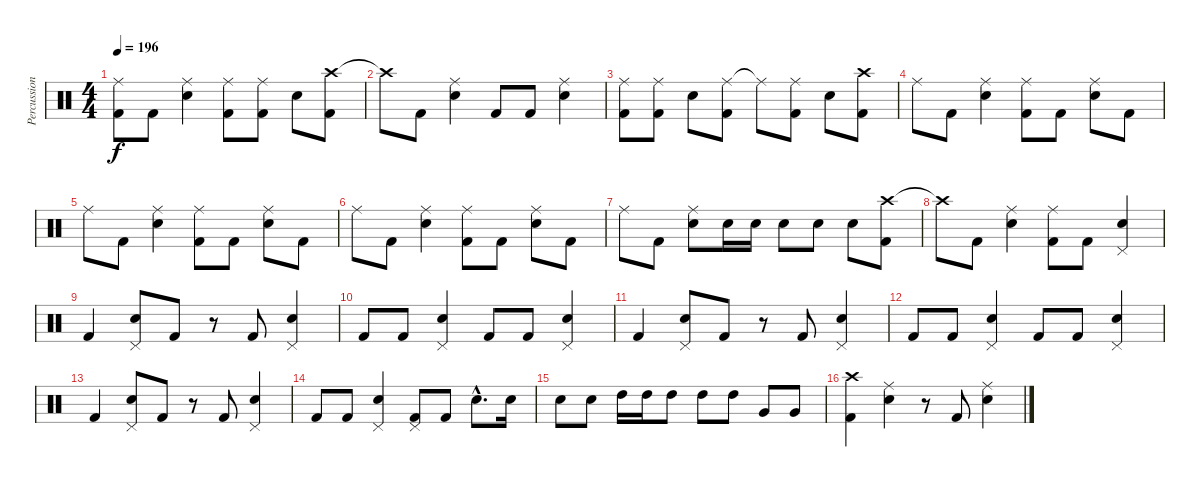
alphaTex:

\track ("Percussion" "Percussion") {instrument percussion}
\staff {score}
\articulation defaults
\ts (4 4)
\tempo 196
\clef neutral
\ks c
("Ride (middle)" "Kick (hit) 2").8{dy f} "Kick (hit) 2".8 ("Ride (middle)" "Snare (hit) 2").4 ("Ride (middle)" "Kick (hit) 2").8 ("Ride (middle)" "Kick (hit) 2").8 "Snare (hit) 2".8 ("Crash high (hit)" "Kick (hit) 2").8 |
"Crash high (hit)"{t}.8 "Kick (hit) 2".8 ("Ride (middle)" "Snare (hit) 2").4 "Kick (hit) 2".8 "Kick (hit) 2".8 ("Ride (middle)" "Snare (hit) 2").4 |
("Ride (middle)" "Kick (hit) 2").8 ("Ride (middle)" "Kick (hit) 2").8 "Snare (hit) 2".8 ("Ride (middle)" "Kick (hit) 2").8 "Ride (middle)"{t}.8 ("Ride (middle)" "Kick (hit) 2").8 "Snare (hit) 2".8 ("Crash high (hit)" "Kick (hit) 2").8 |
"Ride (middle)".8 "Kick (hit) 2".8 ("Ride (middle)" "Snare (hit) 2").4 ("Ride (middle)" "Kick (hit) 2").8 "Kick (hit) 2".8 ("Ride (middle)" "Snare (hit) 2").8 "Kick (hit) 2".8 |
"Ride (middle)".8 "Kick (hit) 2".8 ("Ride (middle)" "Snare (hit) 2").4 ("Ride (middle)" "Kick (hit) 2").8 "Kick (hit) 2".8 ("Ride (middle)" "Snare (hit) 2").8 "Kick (hit) 2".8 |
"Ride (middle)".8 "Kick (hit) 2".8 ("Ride (middle)" "Snare (hit) 2").4 ("Ride (middle)" "Kick (hit) 2").8 "Kick (hit) 2".8 ("Ride (middle)" "Snare (hit) 2").8 "Kick (hit) 2".8 |
"Ride (middle)".8 "Kick (hit) 2".8 ("Ride (middle)" "Snare (hit) 2").8 "Snare (hit) 2".16 "Snare (hit) 2".16 "Snare (hit) 2".8 "Snare (hit) 2".8 "Snare (hit) 2".8 ("Crash high (hit)" "Kick (hit) 2").8 |
"Crash high (hit)"{t}.8 "Kick (hit) 2".8 ("Ride (middle)" "Snare (hit) 2").4 ("Ride (middle)" "Kick (hit) 2").8 "Kick (hit) 2".8 ("Pedal Hi-Hat (hit)" "Snare (hit) 2").4 |
"Kick (hit) 2".4 ("Pedal Hi-Hat (hit)" "Snare (hit) 2").8 "Kick (hit) 2".8 r.8 "Kick (hit) 2".8 ("Pedal Hi-Hat (hit)" "Snare (hit) 2").4 |
"Kick (hit) 2".8 "Kick (hit) 2".8 ("Pedal Hi-Hat (hit)" "Snare (hit) 2").4 "Kick (hit) 2".8 "Kick (hit) 2".8 ("Pedal Hi-Hat (hit)" "Snare (hit) 2").4 |
"Kick (hit) 2".4 ("Pedal Hi-Hat (hit)" "Snare (hit) 2").8 "Kick (hit) 2".8 r.8 "Kick (hit) 2".8 ("Pedal Hi-Hat (hit)" "Snare (hit) 2").4 |
"Kick (hit) 2".8 "Kick (hit) 2".8 ("Pedal Hi-Hat (hit)" "Snare (hit) 2").4 "Kick (hit) 2".8 "Kick (hit) 2".8 ("Pedal Hi-Hat (hit)" "Snare (hit) 2").4 |
"Kick (hit) 2".4 ("Pedal Hi-Hat (hit)" "Snare (hit) 2").8 "Kick (hit) 2".8 r.8 "Kick (hit) 2".8 ("Pedal Hi-Hat (hit)" "Snare (hit) 2").4 |
"Kick (hit) 2".8 "Kick (hit) 2".8 ("Pedal Hi-Hat (hit)" "Snare (hit) 2").4 ("Pedal Hi-Hat (hit)" "Kick (hit) 2").8 "Kick (hit) 2".8 "Snare (hit) 2"{hac}.8{d} "Snare (hit) 2".16 |
"Snare (hit) 2".8 "Snare (hit) 2".8 "High Tom (hit)".16 "High Tom (hit)".16 "High Tom (hit)".8 "High Tom (hit)".8 "High Tom (hit)".8 "Very Low Tom (hit)".8 "Very Low Tom (hit)".8 |
("Crash high (hit)" "Kick (hit) 2").4 ("Ride (middle)" "Snare (hit) 2").4 r.8 "Kick (hit) 2".8 ("Ride (middle)" "Snare (hit) 2").4
